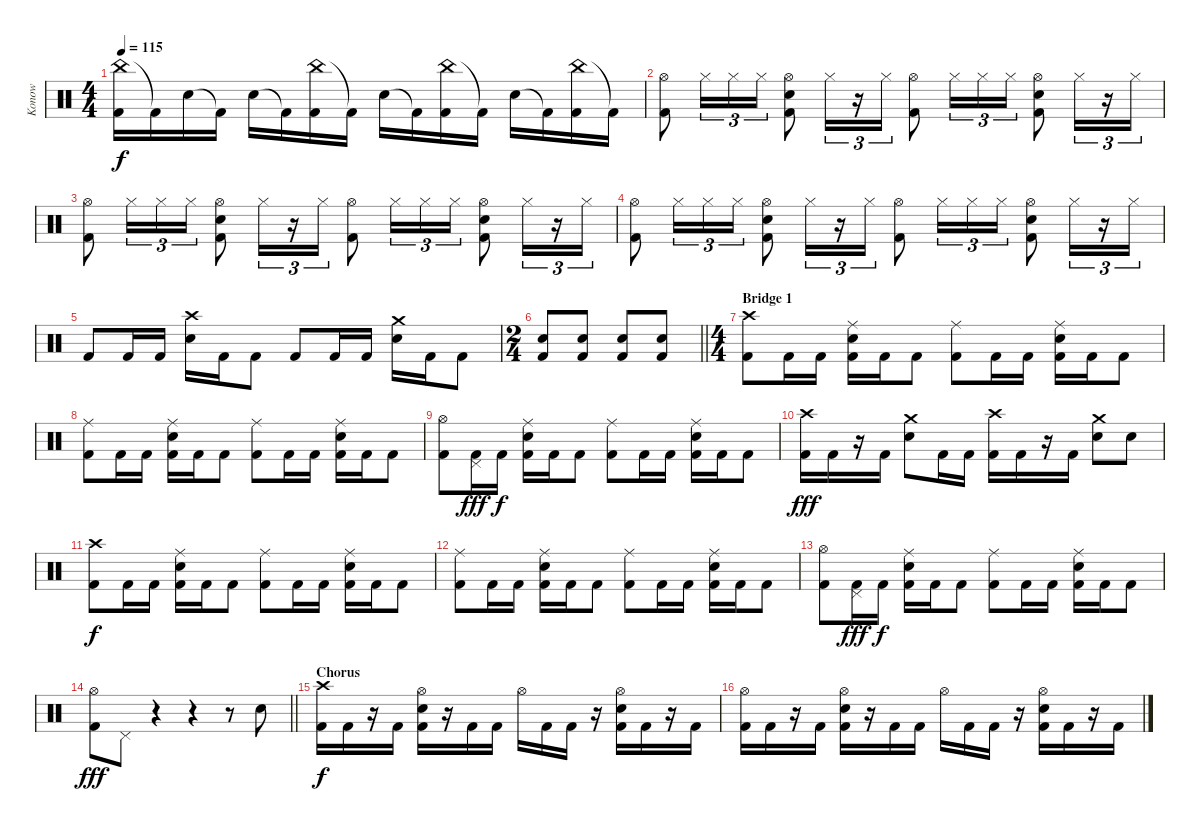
\track ("Konow" "Konow") {instrument percussion}
\staff {score}
\articulation defaults
\ts (4 4)
\tempo 115
\clef neutral
\ks c
("China (hit)" "Kick (hit) 2").16{dy f} "Kick (hit) 2"{t}.16 "Electric Snare (hit)".16 "Kick (hit) 2"{t}.16 "Electric Snare (hit)".16 "Kick (hit) 2"{t}.16 ("China (hit)" "Kick (hit) 2").16 "Kick (hit) 2"{t}.16 "Electric Snare (hit)".16 "Kick (hit) 2"{t}.16 ("China (hit)" "Kick (hit) 2").16 "Kick (hit) 2"{t}.16 "Electric Snare (hit)".16 "Kick (hit) 2"{t}.16 ("China (hit)" "Kick (hit) 2").16 "Kick (hit) 2"{t}.16 |
("Hi-Hat (open)" "Kick (hit) 2").8 "Hi-Hat (closed)".16{tu (3 2)} "Hi-Hat (closed)".16{tu (3 2)} "Hi-Hat (closed)".16{tu (3 2)} ("Electric Snare (hit)" "Hi-Hat (open)" "Kick (hit) 2").8 "Hi-Hat (closed)".16{tu (3 2)} r.16{tu (3 2)} "Hi-Hat (closed)".16{tu (3 2)} ("Hi-Hat (open)" "Kick (hit) 2").8 "Hi-Hat (closed)".16{tu (3 2)} "Hi-Hat (closed)".16{tu (3 2)} "Hi-Hat (closed)".16{tu (3 2)} ("Electric Snare (hit)" "Hi-Hat (open)" "Kick (hit) 2").8 "Hi-Hat (closed)".16{tu (3 2)} r.16{tu (3 2)} "Hi-Hat (closed)".16{tu (3 2)} |
("Hi-Hat (open)" "Kick (hit) 2").8 "Hi-Hat (closed)".16{tu (3 2)} "Hi-Hat (closed)".16{tu (3 2)} "Hi-Hat (closed)".16{tu (3 2)} ("Electric Snare (hit)" "Hi-Hat (open)" "Kick (hit) 2").8 "Hi-Hat (closed)".16{tu (3 2)} r.16{tu (3 2)} "Hi-Hat (closed)".16{tu (3 2)} ("Hi-Hat (open)" "Kick (hit) 2").8 "Hi-Hat (closed)".16{tu (3 2)} "Hi-Hat (closed)".16{tu (3 2)} "Hi-Hat (closed)".16{tu (3 2)} ("Electric Snare (hit)" "Hi-Hat (open)" "Kick (hit) 2").8 "Hi-Hat (closed)".16{tu (3 2)} r.16{tu (3 2)} "Hi-Hat (closed)".16{tu (3 2)} |
("Hi-Hat (open)" "Kick (hit) 2").8 "Hi-Hat (closed)".16{tu (3 2)} "Hi-Hat (closed)".16{tu (3 2)} "Hi-Hat (closed)".16{tu (3 2)} ("Electric Snare (hit)" "Hi-Hat (open)" "Kick (hit) 2").8 "Hi-Hat (closed)".16{tu (3 2)} r.16{tu (3 2)} "Hi-Hat (closed)".16{tu (3 2)} ("Hi-Hat (open)" "Kick (hit) 2").8 "Hi-Hat (closed)".16{tu (3 2)} "Hi-Hat (closed)".16{tu (3 2)} "Hi-Hat (closed)".16{tu (3 2)} ("Electric Snare (hit)" "Hi-Hat (open)" "Kick (hit) 2").8 "Hi-Hat (closed)".16{tu (3 2)} r.16{tu (3 2)} "Hi-Hat (closed)".16{tu (3 2)} |
"Kick (hit) 2".8 "Kick (hit) 2".16 "Kick (hit) 2".16 ("Crash high (hit)" "Electric Snare (hit)").16 "Kick (hit) 2".16 "Kick (hit) 2".8 "Kick (hit) 2".8 "Kick (hit) 2".16 "Kick (hit) 2".16 ("Crash medium (hit)" "Electric Snare (hit)").16 "Kick (hit) 2".16 "Kick (hit) 2".8 |
\ts (2 4)
\barLineRight lightlight
("Electric Snare (hit)" "Kick (hit) 2").8 ("Electric Snare (hit)" "Kick (hit) 2").8 ("Electric Snare (hit)" "Kick (hit) 2").8 ("Electric Snare (hit)" "Kick (hit) 2").8 |
\ts (4 4)
\section ("" "Bridge 1")
("Crash high (hit)" "Kick (hit) 2").8 "Kick (hit) 2".16 "Kick (hit) 2".16 ("Electric Snare (hit)" "Ride (middle)" "Kick (hit) 2").16 "Kick (hit) 2".16 "Kick (hit) 2".8 ("Ride (middle)" "Kick (hit) 2").8 "Kick (hit) 2".16 "Kick (hit) 2".16 ("Electric Snare (hit)" "Ride (middle)" "Kick (hit) 2").16 "Kick (hit) 2".16 "Kick (hit) 2".8 |
("Ride (middle)" "Kick (hit) 2").8 "Kick (hit) 2".16 "Kick (hit) 2".16 ("Electric Snare (hit)" "Ride (middle)" "Kick (hit) 2").16 "Kick (hit) 2".16 "Kick (hit) 2".8 ("Ride (middle)" "Kick (hit) 2").8 "Kick (hit) 2".16 "Kick (hit) 2".16 ("Electric Snare (hit)" "Ride (middle)" "Kick (hit) 2").16 "Kick (hit) 2".16 "Kick (hit) 2".8 |
("Hi-Hat (open)" "Kick (hit) 2").8 ("Pedal Hi-Hat (hit)" "Kick (hit) 2").16{dy fff} "Kick (hit) 2".16{dy f} ("Electric Snare (hit)" "Ride (middle)" "Kick (hit) 2").16 "Kick (hit) 2".16 "Kick (hit) 2".8 ("Ride (middle)" "Kick (hit) 2").8 "Kick (hit) 2".16 "Kick (hit) 2".16 ("Electric Snare (hit)" "Ride (middle)" "Kick (hit) 2").16 "Kick (hit) 2".16 "Kick (hit) 2".8 |
("Crash high (hit)" "Kick (hit) 2").16{dy fff} "Kick (hit) 2".16 r.16 "Kick (hit) 2".16 ("Crash medium (hit)" "Electric Snare (hit)").8 "Kick (hit) 2".16 "Kick (hit) 2".16 ("Crash high (hit)" "Kick (hit) 2").16 "Kick (hit) 2".16 r.16 "Kick (hit) 2".16 ("Crash medium (hit)" "Electric Snare (hit)").8 "Electric Snare (hit)".8 |
("Crash high (hit)" "Kick (hit) 2").8{dy f} "Kick (hit) 2".16 "Kick (hit) 2".16 ("Electric Snare (hit)" "Ride (middle)" "Kick (hit) 2").16 "Kick (hit) 2".16 "Kick (hit) 2".8 ("Ride (middle)" "Kick (hit) 2").8 "Kick (hit) 2".16 "Kick (hit) 2".16 ("Electric Snare (hit)" "Ride (middle)" "Kick (hit) 2").16 "Kick (hit) 2".16 "Kick (hit) 2".8 |
("Ride (middle)" "Kick (hit) 2").8 "Kick (hit) 2".16 "Kick (hit) 2".16 ("Electric Snare (hit)" "Ride (middle)" "Kick (hit) 2").16 "Kick (hit) 2".16 "Kick (hit) 2".8 ("Ride (middle)" "Kick (hit) 2").8 "Kick (hit) 2".16 "Kick (hit) 2".16 ("Electric Snare (hit)" "Ride (middle)" "Kick (hit) 2").16 "Kick (hit) 2".16 "Kick (hit) 2".8 |
("Hi-Hat (open)" "Kick (hit) 2").8 ("Pedal Hi-Hat (hit)" "Kick (hit) 2").16{dy fff} "Kick (hit) 2".16{dy f} ("Electric Snare (hit)" "Ride (middle)" "Kick (hit) 2").16 "Kick (hit) 2".16 "Kick (hit) 2".8 ("Ride (middle)" "Kick (hit) 2").8 "Kick (hit) 2".16 "Kick (hit) 2".16 ("Electric Snare (hit)" "Ride (middle)" "Kick (hit) 2").16 "Kick (hit) 2".16 "Kick (hit) 2".8 |
\barLineRight lightlight
("Hi-Hat (open)" "Kick (hit) 2").8{dy fff} "Pedal Hi-Hat (hit)".8 r.4 r.4 r.8 "Electric Snare (hit)".8 |
\section ("" "Chorus")
("Crash high (hit)" "Kick (hit) 2").16{dy f} "Kick (hit) 2".16 r.16 "Kick (hit) 2".16 ("Hi-Hat (open)" "Electric Snare (hit)" "Kick (hit) 2").16 r.16 "Kick (hit) 2".16 "Kick (hit) 2".16 "Hi-Hat (open)".16 "Kick (hit) 2".16 "Kick (hit) 2".16 r.16 ("Hi-Hat (open)" "Electric Snare (hit)" "Kick (hit) 2").16 "Kick (hit) 2".16 r.16 "Kick (hit) 2".16 |
("Hi-Hat (open)" "Kick (hit) 2").16 "Kick (hit) 2".16 r.16 "Kick (hit) 2".16 ("Hi-Hat (open)" "Electric Snare (hit)" "Kick (hit) 2").16 r.16 "Kick (hit) 2".16 "Kick (hit) 2".16 "Hi-Hat (open)".16 "Kick (hit) 2".16 "Kick (hit) 2".16 r.16 ("Hi-Hat (open)" "Electric Snare (hit)" "Kick (hit) 2").16 "Kick (hit) 2".16 r.16 "Kick (hit) 2".16
